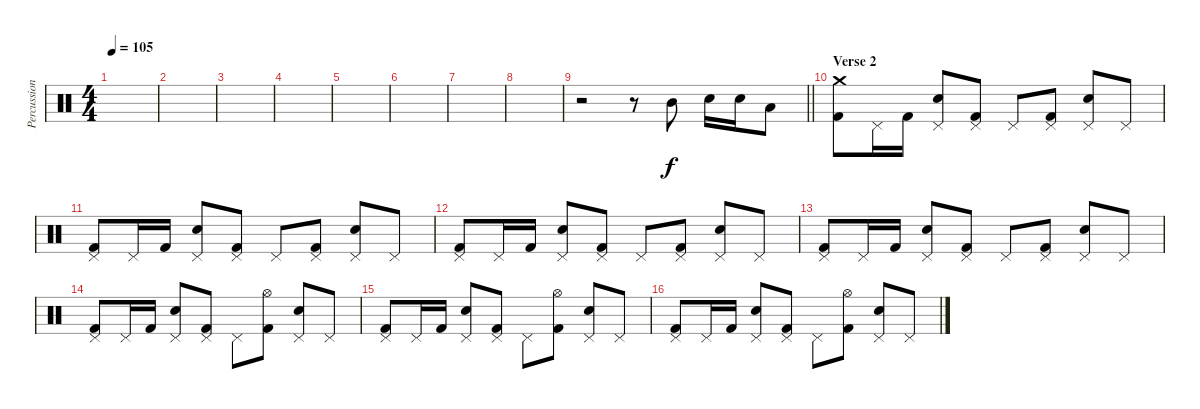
\track ("Percussion" "Percussion") {instrument percussion}
\staff {score}
\articulation defaults
\ts (4 4)
\tempo 105
\clef neutral
\ks c
|
|
|
|
|
|
|
|
\barLineRight lightlight
r.2 r.8 "Mid Tom (hit)".8 "Electric Snare (hit)".16 "Electric Snare (hit)".16 "Low Tom (hit)".8 |
\section ("" "Verse 2")
("Crash medium (hit)" "Kick (hit) 2").8 "Pedal Hi-Hat (hit)".16 "Kick (hit) 2".16 ("Pedal Hi-Hat (hit)" "Electric Snare (hit)").8 ("Pedal Hi-Hat (hit)" "Kick (hit) 2").8 "Pedal Hi-Hat (hit)".8 ("Pedal Hi-Hat (hit)" "Kick (hit) 2").8 ("Pedal Hi-Hat (hit)" "Electric Snare (hit)").8 "Pedal Hi-Hat (hit)".8 |
("Pedal Hi-Hat (hit)" "Kick (hit) 2").8 "Pedal Hi-Hat (hit)".16 "Kick (hit) 2".16 ("Pedal Hi-Hat (hit)" "Electric Snare (hit)").8 ("Pedal Hi-Hat (hit)" "Kick (hit) 2").8 "Pedal Hi-Hat (hit)".8 ("Pedal Hi-Hat (hit)" "Kick (hit) 2").8 ("Pedal Hi-Hat (hit)" "Electric Snare (hit)").8 "Pedal Hi-Hat (hit)".8 |
("Pedal Hi-Hat (hit)" "Kick (hit) 2").8 "Pedal Hi-Hat (hit)".16 "Kick (hit) 2".16 ("Pedal Hi-Hat (hit)" "Electric Snare (hit)").8 ("Pedal Hi-Hat (hit)" "Kick (hit) 2").8 "Pedal Hi-Hat (hit)".8 ("Pedal Hi-Hat (hit)" "Kick (hit) 2").8 ("Pedal Hi-Hat (hit)" "Electric Snare (hit)").8 "Pedal Hi-Hat (hit)".8 |
("Pedal Hi-Hat (hit)" "Kick (hit) 2").8 "Pedal Hi-Hat (hit)".16 "Kick (hit) 2".16 ("Pedal Hi-Hat (hit)" "Electric Snare (hit)").8 ("Pedal Hi-Hat (hit)" "Kick (hit) 2").8 "Pedal Hi-Hat (hit)".8 ("Pedal Hi-Hat (hit)" "Kick (hit) 2").8 ("Pedal Hi-Hat (hit)" "Electric Snare (hit)").8 "Pedal Hi-Hat (hit)".8 |
("Pedal Hi-Hat (hit)" "Kick (hit) 2").8 "Pedal Hi-Hat (hit)".16 "Kick (hit) 2".16 ("Pedal Hi-Hat (hit)" "Electric Snare (hit)").8 ("Pedal Hi-Hat (hit)" "Kick (hit) 2").8 "Pedal Hi-Hat (hit)".8 ("Hi-Hat (open)" "Kick (hit) 2").8 ("Pedal Hi-Hat (hit)" "Electric Snare (hit)").8 "Pedal Hi-Hat (hit)".8 |
("Pedal Hi-Hat (hit)" "Kick (hit) 2").8 "Pedal Hi-Hat (hit)".16 "Kick (hit) 2".16 ("Pedal Hi-Hat (hit)" "Electric Snare (hit)").8 ("Pedal Hi-Hat (hit)" "Kick (hit) 2").8 "Pedal Hi-Hat (hit)".8 ("Hi-Hat (open)" "Kick (hit) 2").8 ("Pedal Hi-Hat (hit)" "Electric Snare (hit)").8 "Pedal Hi-Hat (hit)".8 |
("Pedal Hi-Hat (hit)" "Kick (hit) 2").8 "Pedal Hi-Hat (hit)".16 "Kick (hit) 2".16 ("Pedal Hi-Hat (hit)" "Electric Snare (hit)").8 ("Pedal Hi-Hat (hit)" "Kick (hit) 2").8 "Pedal Hi-Hat (hit)".8 ("Hi-Hat (open)" "Kick (hit) 2").8 ("Pedal Hi-Hat (hit)" "Electric Snare (hit)").8 "Pedal Hi-Hat (hit)".8
